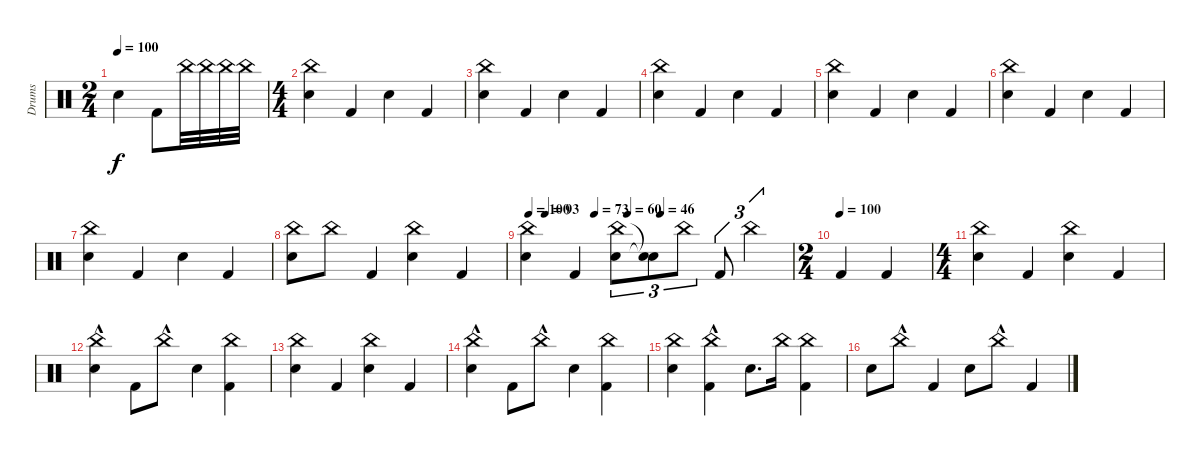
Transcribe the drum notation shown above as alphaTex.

\track ("Drums" "Drums") {instrument percussion}
\staff {score}
\articulation defaults
\ts (2 4)
\tempo 100
\clef neutral
\ks c "Snare (hit) 2".4{dy f} "Kick (hit) 2".8 "China (hit)".32 "China (hit)".32 "China (hit)".32 "China (hit)".32
|
\ts (4 4)
("China (hit)" "Snare (hit) 2").4 "Kick (hit) 2".4 "Snare (hit) 2".4 "Kick (hit) 2".4 |
("China (hit)" "Snare (hit) 2").4 "Kick (hit) 2".4 "Snare (hit) 2".4 "Kick (hit) 2".4 |
("China (hit)" "Snare (hit) 2").4 "Kick (hit) 2".4 "Snare (hit) 2".4 "Kick (hit) 2".4 |
("China (hit)" "Snare (hit) 2").4 "Kick (hit) 2".4 "Snare (hit) 2".4 "Kick (hit) 2".4 |
("China (hit)" "Snare (hit) 2").4 "Kick (hit) 2".4 "Snare (hit) 2".4 "Kick (hit) 2".4 |
("China (hit)" "Snare (hit) 2").4 "Kick (hit) 2".4 "Snare (hit) 2".4 "Kick (hit) 2".4 |
("China (hit)" "Snare (hit) 2").8 "China (hit)".8 "Kick (hit) 2".4 ("China (hit)" "Snare (hit) 2").4 "Kick (hit) 2".4 |
\tempo 100
\tempo (93 0.0625)
\tempo (73 0.25)
\tempo (60 0.375)
\tempo (46 0.5)
("China (hit)" "Snare (hit) 2").4 "Kick (hit) 2".4 ("China (hit)" "Snare (hit) 2").8{tu (3 2)} ("Snare (hit)"{t} "Snare (hit)"{t}).8{tu (3 2)} "China (hit)".8{tu (3 2)} "Kick (hit) 2".8{tu (3 2)} "China (hit)".4{tu (3 2)} |
\ts (2 4)
\tempo (100)
"Kick (hit) 2".4 "Kick (hit) 2".4 |
\ts (4 4)
("China (hit)" "Snare (hit) 2").4 "Kick (hit) 2".4 ("China (hit)" "Snare (hit) 2").4 "Kick (hit) 2".4 |
("China (hit)"{hac} "Snare (hit) 2").4 "Kick (hit) 2".8 "China (hit)"{hac}.8 "Snare (hit) 2".4 ("China (hit)" "Kick (hit) 2").4 |
("China (hit)" "Snare (hit) 2").4 "Kick (hit) 2".4 ("China (hit)" "Snare (hit) 2").4 "Kick (hit) 2".4 |
("China (hit)"{hac} "Snare (hit) 2").4 "Kick (hit) 2".8 "China (hit)"{hac}.8 "Snare (hit) 2".4 ("China (hit)" "Kick (hit) 2").4 |
("China (hit)" "Snare (hit) 2").4 ("China (hit)"{hac} "Kick (hit) 2").4 "Snare (hit) 2".8{d} "China (hit)".16 ("China (hit)" "Kick (hit) 2").4 |
"Snare (hit) 2".8 "China (hit)"{hac}.8 "Kick (hit) 2".4 "Snare (hit) 2".8 "China (hit)"{hac}.8 "Kick (hit) 2".4
